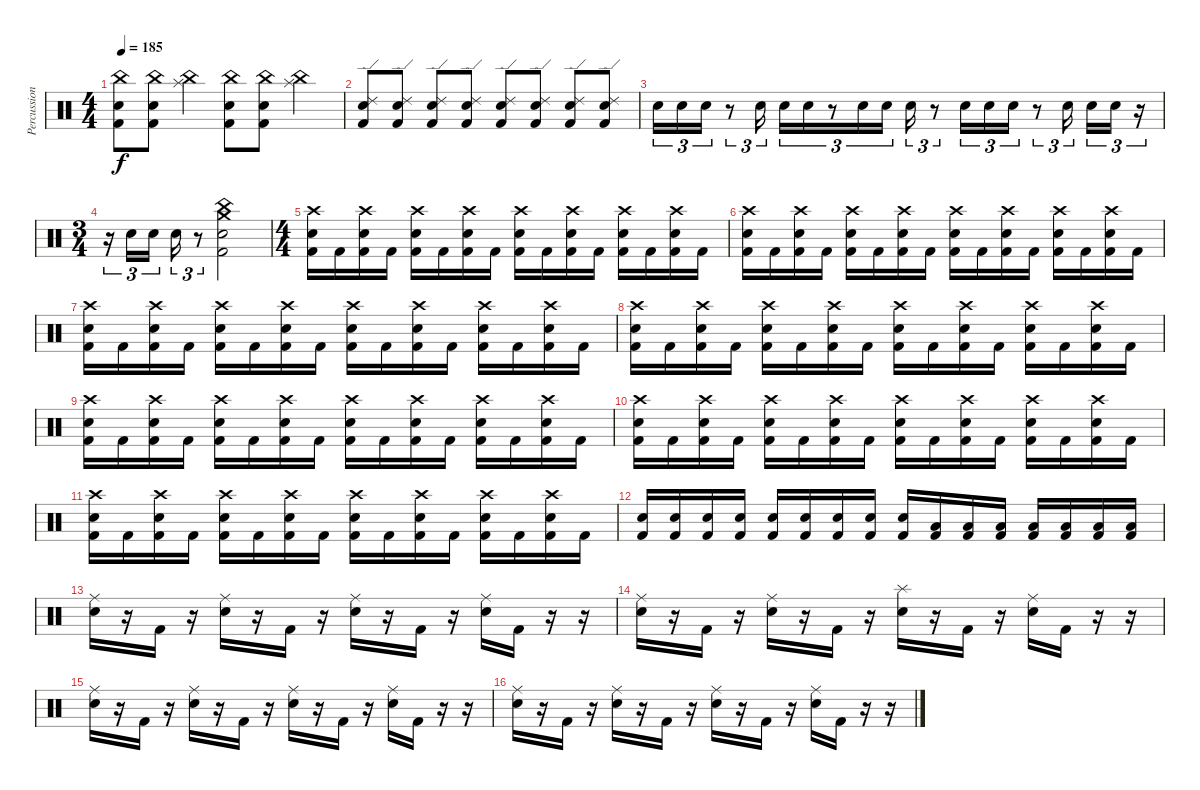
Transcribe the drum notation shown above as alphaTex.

\track ("Percussion" "Percussion") {instrument percussion}
\staff {score}
\articulation defaults
\ts (4 4)
\tempo 185
\clef neutral
\ks c
("China (hit)" "Kick (hit) 2" "Electric Snare (hit)").8{dy f} ("China (hit)" "Kick (hit) 2" "Electric Snare (hit)").8 ("China (hit)" "Splash (hit)").4 ("China (hit)" "Kick (hit) 2" "Electric Snare (hit)").8 ("China (hit)" "Kick (hit) 2" "Electric Snare (hit)").8 ("China (hit)" "Splash (hit)").4 |
("Ride (edge) 2" "Electric Snare (hit)" "Kick (hit) 2").8 ("Ride (edge) 2" "Electric Snare (hit)" "Kick (hit) 2").8 ("Ride (edge) 2" "Electric Snare (hit)" "Kick (hit) 2").8 ("Ride (edge) 2" "Snare (hit)" "Kick (hit) 2").8 ("Ride (edge) 2" "Electric Snare (hit)" "Kick (hit) 2").8 ("Ride (edge) 2" "Electric Snare (hit)" "Kick (hit) 2").8 ("Ride (edge) 2" "Electric Snare (hit)" "Kick (hit) 2").8 ("Ride (edge) 2" "Snare (hit)" "Kick (hit) 2").8 |
"Electric Snare (hit)".16{tu (3 2)} "Electric Snare (hit)".16{tu (3 2)} "Electric Snare (hit)".16{tu (3 2)} r.8{tu (3 2)} "Electric Snare (hit)".16{tu (3 2)} "Electric Snare (hit)".16{tu (3 2)} "Electric Snare (hit)".16{tu (3 2)} r.8{tu (3 2)} "Electric Snare (hit)".16{tu (3 2)} "Electric Snare (hit)".16{tu (3 2)} "Electric Snare (hit)".16{tu (3 2)} r.8{tu (3 2)} "Electric Snare (hit)".16{tu (3 2)} "Electric Snare (hit)".16{tu (3 2)} "Electric Snare (hit)".16{tu (3 2)} r.8{tu (3 2)} "Electric Snare (hit)".16{tu (3 2) beam splitsecondary} "Electric Snare (hit)".16{tu (3 2)} "Electric Snare (hit)".16{tu (3 2)} r.16{tu (3 2)} |
\ts (3 4)
r.16{tu (3 2)} "Electric Snare (hit)".16{tu (3 2)} "Electric Snare (hit)".16{tu (3 2) beam splitsecondary} "Electric Snare (hit)".16{tu (3 2)} r.8{tu (3 2)} ("Crash medium (hit)" "China (hit)" "Electric Snare (hit)" "Kick (hit) 2").2 |
\ts (4 4)
("Crash high (hit)" "Electric Snare (hit)" "Kick (hit) 2").16 "Kick (hit) 2".16 ("Crash high (hit)" "Electric Snare (hit)" "Kick (hit) 2").16 "Kick (hit) 2".16 ("Crash high (hit)" "Electric Snare (hit)" "Kick (hit) 2").16 "Kick (hit) 2".16 ("Crash high (hit)" "Electric Snare (hit)" "Kick (hit) 2").16 "Kick (hit) 2".16 ("Crash high (hit)" "Electric Snare (hit)" "Kick (hit) 2").16 "Kick (hit) 2".16 ("Crash high (hit)" "Electric Snare (hit)" "Kick (hit) 2").16 "Kick (hit) 2".16 ("Crash high (hit)" "Electric Snare (hit)" "Kick (hit) 2").16 "Kick (hit) 2".16 ("Crash high (hit)" "Electric Snare (hit)" "Kick (hit) 2").16 "Kick (hit) 2".16 |
("Crash high (hit)" "Electric Snare (hit)" "Kick (hit) 2").16 "Kick (hit) 2".16 ("Crash high (hit)" "Electric Snare (hit)" "Kick (hit) 2").16 "Kick (hit) 2".16 ("Crash high (hit)" "Electric Snare (hit)" "Kick (hit) 2").16 "Kick (hit) 2".16 ("Crash high (hit)" "Electric Snare (hit)" "Kick (hit) 2").16 "Kick (hit) 2".16 ("Crash high (hit)" "Electric Snare (hit)" "Kick (hit) 2").16 "Kick (hit) 2".16 ("Crash high (hit)" "Electric Snare (hit)" "Kick (hit) 2").16 "Kick (hit) 2".16 ("Crash high (hit)" "Electric Snare (hit)" "Kick (hit) 2").16 "Kick (hit) 2".16 ("Crash high (hit)" "Electric Snare (hit)" "Kick (hit) 2").16 "Kick (hit) 2".16 |
("Crash high (hit)" "Electric Snare (hit)" "Kick (hit) 2").16 "Kick (hit) 2".16 ("Crash high (hit)" "Electric Snare (hit)" "Kick (hit) 2").16 "Kick (hit) 2".16 ("Crash high (hit)" "Electric Snare (hit)" "Kick (hit) 2").16 "Kick (hit) 2".16 ("Crash high (hit)" "Electric Snare (hit)" "Kick (hit) 2").16 "Kick (hit) 2".16 ("Crash high (hit)" "Electric Snare (hit)" "Kick (hit) 2").16 "Kick (hit) 2".16 ("Crash high (hit)" "Electric Snare (hit)" "Kick (hit) 2").16 "Kick (hit) 2".16 ("Crash high (hit)" "Electric Snare (hit)" "Kick (hit) 2").16 "Kick (hit) 2".16 ("Crash high (hit)" "Electric Snare (hit)" "Kick (hit) 2").16 "Kick (hit) 2".16 |
("Crash high (hit)" "Electric Snare (hit)" "Kick (hit) 2").16 "Kick (hit) 2".16 ("Crash high (hit)" "Electric Snare (hit)" "Kick (hit) 2").16 "Kick (hit) 2".16 ("Crash high (hit)" "Electric Snare (hit)" "Kick (hit) 2").16 "Kick (hit) 2".16 ("Crash high (hit)" "Electric Snare (hit)" "Kick (hit) 2").16 "Kick (hit) 2".16 ("Crash high (hit)" "Electric Snare (hit)" "Kick (hit) 2").16 "Kick (hit) 2".16 ("Crash high (hit)" "Electric Snare (hit)" "Kick (hit) 2").16 "Kick (hit) 2".16 ("Crash high (hit)" "Electric Snare (hit)" "Kick (hit) 2").16 "Kick (hit) 2".16 ("Crash high (hit)" "Electric Snare (hit)" "Kick (hit) 2").16 "Kick (hit) 2".16 |
("Crash high (hit)" "Electric Snare (hit)" "Kick (hit) 2").16 "Kick (hit) 2".16 ("Crash high (hit)" "Electric Snare (hit)" "Kick (hit) 2").16 "Kick (hit) 2".16 ("Crash high (hit)" "Electric Snare (hit)" "Kick (hit) 2").16 "Kick (hit) 2".16 ("Crash high (hit)" "Electric Snare (hit)" "Kick (hit) 2").16 "Kick (hit) 2".16 ("Crash high (hit)" "Electric Snare (hit)" "Kick (hit) 2").16 "Kick (hit) 2".16 ("Crash high (hit)" "Electric Snare (hit)" "Kick (hit) 2").16 "Kick (hit) 2".16 ("Crash high (hit)" "Electric Snare (hit)" "Kick (hit) 2").16 "Kick (hit) 2".16 ("Crash high (hit)" "Electric Snare (hit)" "Kick (hit) 2").16 "Kick (hit) 2".16 |
("Crash high (hit)" "Electric Snare (hit)" "Kick (hit) 2").16 "Kick (hit) 2".16 ("Crash high (hit)" "Electric Snare (hit)" "Kick (hit) 2").16 "Kick (hit) 2".16 ("Crash high (hit)" "Electric Snare (hit)" "Kick (hit) 2").16 "Kick (hit) 2".16 ("Crash high (hit)" "Electric Snare (hit)" "Kick (hit) 2").16 "Kick (hit) 2".16 ("Crash high (hit)" "Electric Snare (hit)" "Kick (hit) 2").16 "Kick (hit) 2".16 ("Crash high (hit)" "Electric Snare (hit)" "Kick (hit) 2").16 "Kick (hit) 2".16 ("Crash high (hit)" "Electric Snare (hit)" "Kick (hit) 2").16 "Kick (hit) 2".16 ("Crash high (hit)" "Electric Snare (hit)" "Kick (hit) 2").16 "Kick (hit) 2".16 |
("Crash high (hit)" "Electric Snare (hit)" "Kick (hit) 2").16 "Kick (hit) 2".16 ("Crash high (hit)" "Electric Snare (hit)" "Kick (hit) 2").16 "Kick (hit) 2".16 ("Crash high (hit)" "Electric Snare (hit)" "Kick (hit) 2").16 "Kick (hit) 2".16 ("Crash high (hit)" "Electric Snare (hit)" "Kick (hit) 2").16 "Kick (hit) 2".16 ("Crash high (hit)" "Electric Snare (hit)" "Kick (hit) 2").16 "Kick (hit) 2".16 ("Crash high (hit)" "Electric Snare (hit)" "Kick (hit) 2").16 "Kick (hit) 2".16 ("Crash high (hit)" "Electric Snare (hit)" "Kick (hit) 2").16 "Kick (hit) 2".16 ("Crash high (hit)" "Electric Snare (hit)" "Kick (hit) 2").16 "Kick (hit) 2".16 |
("Electric Snare (hit)" "Kick (hit) 2").16 ("Electric Snare (hit)" "Kick (hit) 2").16 ("Electric Snare (hit)" "Kick (hit) 2").16 ("Electric Snare (hit)" "Kick (hit) 2").16 ("Electric Snare (hit)" "Kick (hit) 2").16 ("Electric Snare (hit)" "Kick (hit) 2").16 ("Electric Snare (hit)" "Kick (hit) 2").16 ("Electric Snare (hit)" "Kick (hit) 2").16 ("Electric Snare (hit)" "Kick (hit) 2").16 ("Low Floor Tom (hit)" "Kick (hit) 2").16 ("Low Floor Tom (hit)" "Kick (hit) 2").16 ("Low Floor Tom (hit)" "Kick (hit) 2").16 ("Low Floor Tom (hit)" "Kick (hit) 2").16 ("Low Floor Tom (hit)" "Kick (hit) 2").16 ("Low Floor Tom (hit)" "Kick (hit) 2").16 ("Low Floor Tom (hit)" "Kick (hit) 2").16 |
("Snare (hit) 2" "Ride (middle)").16 r.16 "Kick (hit) 2".16 r.16 ("Snare (hit) 2" "Ride (middle)").16 r.16 "Kick (hit) 2".16 r.16 ("Snare (hit) 2" "Ride (middle)").16 r.16 "Kick (hit) 2".16 r.16 ("Snare (hit) 2" "Ride (middle)").16 "Kick (hit) 2".16 r.16 r.16 |
("Snare (hit) 2" "Ride (middle)").16 r.16 "Kick (hit) 2".16 r.16 ("Snare (hit) 2" "Ride (middle)").16 r.16 "Kick (hit) 2".16 r.16 ("Snare (hit) 2" "Splash (hit)").16 r.16 "Kick (hit) 2".16 r.16 ("Snare (hit) 2" "Ride (middle)").16 "Kick (hit) 2".16 r.16 r.16 |
("Snare (hit) 2" "Ride (middle)").16 r.16 "Kick (hit) 2".16 r.16 ("Snare (hit) 2" "Ride (middle)").16 r.16 "Kick (hit) 2".16 r.16 ("Snare (hit) 2" "Ride (middle)").16 r.16 "Kick (hit) 2".16 r.16 ("Snare (hit) 2" "Ride (middle)").16 "Kick (hit) 2".16 r.16 r.16 |
("Snare (hit) 2" "Ride (middle)").16 r.16 "Kick (hit) 2".16 r.16 ("Snare (hit) 2" "Ride (middle)").16 r.16 "Kick (hit) 2".16 r.16 ("Snare (hit) 2" "Ride (middle)").16 r.16 "Kick (hit) 2".16 r.16 ("Snare (hit) 2" "Ride (middle)").16 "Kick (hit) 2".16 r.16 r.16
